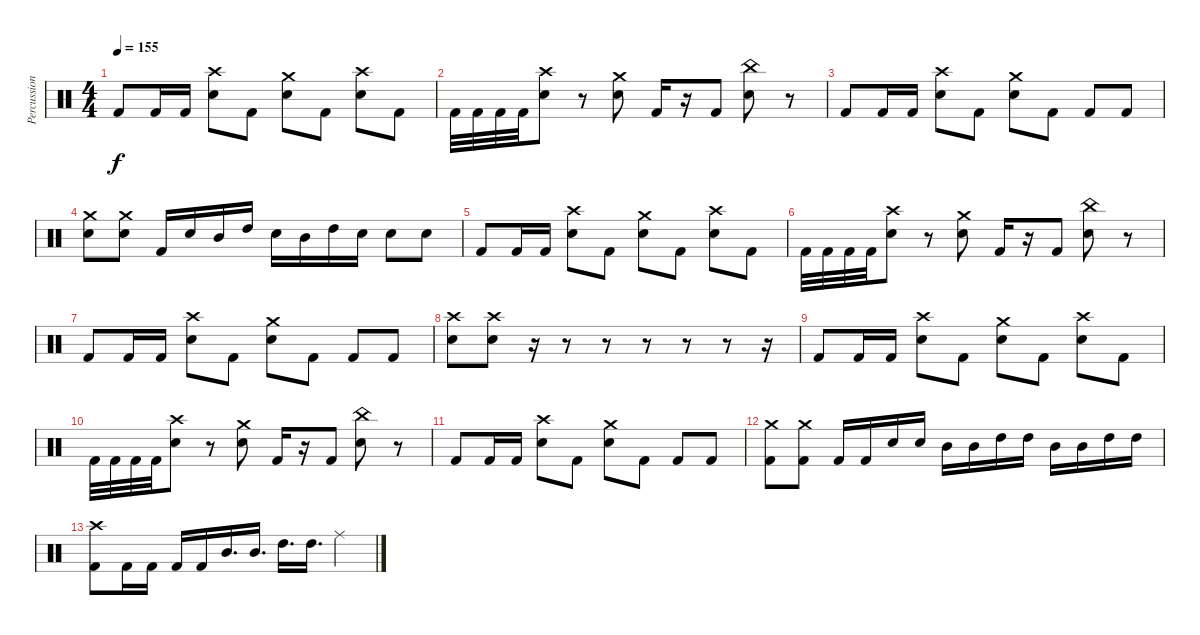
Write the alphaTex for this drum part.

\track ("Percussion" "Percussion") {instrument percussion}
\staff {score}
\articulation defaults
\ts (4 4)
\tempo 155
\clef neutral
\ks c "Kick (hit) 2".8{dy f} "Kick (hit) 2".16 "Kick (hit) 2".16
("Crash high (hit)" "Snare (hit) 2").8 "Kick (hit) 2".8 ("Crash medium (hit)" "Snare (hit) 2").8 "Kick (hit) 2".8 ("Crash high (hit)" "Snare (hit) 2").8 "Kick (hit) 2".8 |
"Kick (hit) 2".32 "Kick (hit) 2".32 "Kick (hit) 2".32 "Kick (hit) 2".32 ("Crash high (hit)" "Snare (hit) 2").8 r.8 ("Crash medium (hit)" "Snare (hit) 2").8 "Kick (hit) 2".16 r.16 "Kick (hit) 2".8 ("China (hit)" "Snare (hit) 2").8 r.8 |
"Kick (hit) 2".8 "Kick (hit) 2".16 "Kick (hit) 2".16 ("Crash high (hit)" "Snare (hit) 2").8 "Kick (hit) 2".8 ("Crash medium (hit)" "Snare (hit) 2").8 "Kick (hit) 2".8 "Kick (hit) 2".8 "Kick (hit) 2".8 |
("Crash medium (hit)" "Snare (hit) 2").8 ("Crash medium (hit)" "Snare (hit) 2").8 "Kick (hit) 2".16 "Snare (hit) 2".16 "Mid Tom (hit)".16 "High Tom (hit)".16 "Snare (hit) 2".16 "Mid Tom (hit)".16 "High Tom (hit)".16 "Snare (hit) 2".16 "Snare (hit) 2".8 "Snare (hit) 2".8 |
"Kick (hit) 2".8 "Kick (hit) 2".16 "Kick (hit) 2".16 ("Crash high (hit)" "Snare (hit) 2").8 "Kick (hit) 2".8 ("Crash medium (hit)" "Snare (hit) 2").8 "Kick (hit) 2".8 ("Crash high (hit)" "Snare (hit) 2").8 "Kick (hit) 2".8 |
"Kick (hit) 2".32 "Kick (hit) 2".32 "Kick (hit) 2".32 "Kick (hit) 2".32 ("Crash high (hit)" "Snare (hit) 2").8 r.8 ("Crash medium (hit)" "Snare (hit) 2").8 "Kick (hit) 2".16 r.16 "Kick (hit) 2".8 ("China (hit)" "Snare (hit) 2").8 r.8 |
"Kick (hit) 2".8 "Kick (hit) 2".16 "Kick (hit) 2".16 ("Crash high (hit)" "Snare (hit) 2").8 "Kick (hit) 2".8 ("Crash medium (hit)" "Snare (hit) 2").8 "Kick (hit) 2".8 "Kick (hit) 2".8 "Kick (hit) 2".8 |
("Snare (hit) 2" "Crash high (hit)").8 ("Snare (hit) 2" "Crash high (hit)").8 r.16 r.8 r.8 r.8 r.8 r.8 r.16 |
"Kick (hit) 2".8 "Kick (hit) 2".16 "Kick (hit) 2".16 ("Crash high (hit)" "Snare (hit) 2").8 "Kick (hit) 2".8 ("Crash medium (hit)" "Snare (hit) 2").8 "Kick (hit) 2".8 ("Crash high (hit)" "Snare (hit) 2").8 "Kick (hit) 2".8 |
"Kick (hit) 2".32 "Kick (hit) 2".32 "Kick (hit) 2".32 "Kick (hit) 2".32 ("Crash high (hit)" "Snare (hit) 2").8 r.8 ("Crash medium (hit)" "Snare (hit) 2").8 "Kick (hit) 2".16 r.16 "Kick (hit) 2".8 ("China (hit)" "Snare (hit) 2").8 r.8 |
"Kick (hit) 2".8 "Kick (hit) 2".16 "Kick (hit) 2".16 ("Crash high (hit)" "Snare (hit) 2").8 "Kick (hit) 2".8 ("Crash medium (hit)" "Snare (hit) 2").8 "Kick (hit) 2".8 "Kick (hit) 2".8 "Kick (hit) 2".8 |
("Crash medium (hit)" "Kick (hit) 2").8 ("Crash medium (hit)" "Kick (hit) 2").8 "Kick (hit) 2".16 "Kick (hit) 2".16 "Snare (hit) 2".16 "Snare (hit) 2".16 "Mid Tom (hit)".16 "Mid Tom (hit)".16 "High Tom (hit)".16 "High Tom (hit)".16 "Mid Tom (hit)".16 "Mid Tom (hit)".16 "High Tom (hit)".16 "High Tom (hit)".16 |
("Crash high (hit)" "Kick (hit) 2").8 "Kick (hit) 2".16 "Kick (hit) 2".16 "Kick (hit) 2".16 "Kick (hit) 2".16 "Mid Tom (hit)".16{d} "Mid Tom (hit)".16{d} "High Tom (hit)".16{d} "High Tom (hit)".16{d} "Ride (middle)".4
